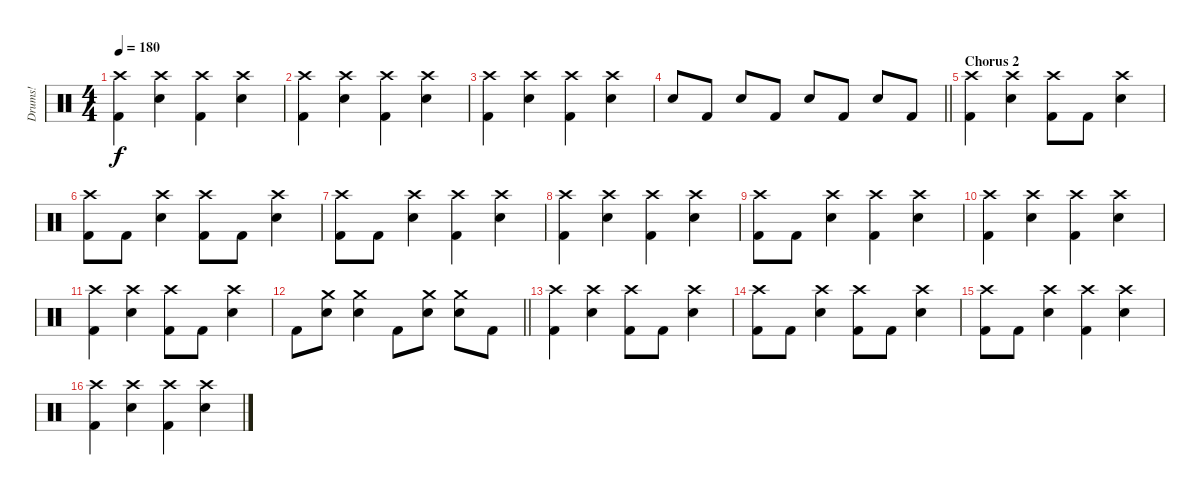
\track ("Drums!" "Drums!") {instrument percussion}
\staff {score}
\articulation defaults
\ts (4 4)
\tempo 180
\clef neutral
\ks c
("Crash high (hit)" "Kick (hit) 2").4{dy f} ("Crash high (hit)" "Electric Snare (hit)").4 ("Crash high (hit)" "Kick (hit) 2").4 ("Crash high (hit)" "Electric Snare (hit)").4 |
("Crash high (hit)" "Kick (hit) 2").4 ("Crash high (hit)" "Electric Snare (hit)").4 ("Crash high (hit)" "Kick (hit) 2").4 ("Crash high (hit)" "Electric Snare (hit)").4 |
("Crash high (hit)" "Kick (hit) 2").4 ("Crash high (hit)" "Electric Snare (hit)").4 ("Crash high (hit)" "Kick (hit) 2").4 ("Crash high (hit)" "Electric Snare (hit)").4 |
\barLineRight lightlight "Electric Snare (hit)".8 "Kick (hit) 2".8 "Electric Snare (hit)".8 "Kick (hit) 2".8 "Electric Snare (hit)".8 "Kick (hit) 2".8 "Electric Snare (hit)".8 "Kick (hit) 2".8
|
\section ("" "Chorus 2")
("Crash high (hit)" "Kick (hit) 2").4 ("Crash high (hit)" "Electric Snare (hit)").4 ("Crash high (hit)" "Kick (hit) 2").8 "Kick (hit) 2".8 ("Crash high (hit)" "Electric Snare (hit)").4 |
("Crash high (hit)" "Kick (hit) 2").8 "Kick (hit) 2".8 ("Crash high (hit)" "Electric Snare (hit)").4 ("Crash high (hit)" "Kick (hit) 2").8 "Kick (hit) 2".8 ("Crash high (hit)" "Electric Snare (hit)").4 |
("Crash high (hit)" "Kick (hit) 2").8 "Kick (hit) 2".8 ("Crash high (hit)" "Electric Snare (hit)").4 ("Crash high (hit)" "Kick (hit) 2").4 ("Crash high (hit)" "Electric Snare (hit)").4 |
("Crash high (hit)" "Kick (hit) 2").4 ("Crash high (hit)" "Electric Snare (hit)").4 ("Crash high (hit)" "Kick (hit) 2").4 ("Crash high (hit)" "Electric Snare (hit)").4 |
("Crash high (hit)" "Kick (hit) 2").8 "Kick (hit) 2".8 ("Crash high (hit)" "Electric Snare (hit)").4 ("Crash high (hit)" "Kick (hit) 2").4 ("Crash high (hit)" "Electric Snare (hit)").4 |
("Crash high (hit)" "Kick (hit) 2").4 ("Crash high (hit)" "Electric Snare (hit)").4 ("Crash high (hit)" "Kick (hit) 2").4 ("Crash high (hit)" "Electric Snare (hit)").4 |
("Crash high (hit)" "Kick (hit) 2").4 ("Crash high (hit)" "Electric Snare (hit)").4 ("Crash high (hit)" "Kick (hit) 2").8 "Kick (hit) 2".8 ("Crash high (hit)" "Electric Snare (hit)").4 |
\barLineRight lightlight "Kick (hit) 2".8
("Crash medium (hit)" "Electric Snare (hit)").8 ("Crash medium (hit)" "Electric Snare (hit)").4 "Kick (hit) 2".8 ("Crash medium (hit)" "Electric Snare (hit)").8 ("Crash medium (hit)" "Electric Snare (hit)").8 "Kick (hit) 2".8 |
("Crash high (hit)" "Kick (hit) 2").4 ("Crash high (hit)" "Electric Snare (hit)").4 ("Crash high (hit)" "Kick (hit) 2").8 "Kick (hit) 2".8 ("Crash high (hit)" "Electric Snare (hit)").4 |
("Crash high (hit)" "Kick (hit) 2").8 "Kick (hit) 2".8 ("Crash high (hit)" "Electric Snare (hit)").4 ("Crash high (hit)" "Kick (hit) 2").8 "Kick (hit) 2".8 ("Crash high (hit)" "Electric Snare (hit)").4 |
("Crash high (hit)" "Kick (hit) 2").8 "Kick (hit) 2".8 ("Crash high (hit)" "Electric Snare (hit)").4 ("Crash high (hit)" "Kick (hit) 2").4 ("Crash high (hit)" "Electric Snare (hit)").4 |
("Crash high (hit)" "Kick (hit) 2").4 ("Crash high (hit)" "Electric Snare (hit)").4 ("Crash high (hit)" "Kick (hit) 2").4 ("Crash high (hit)" "Electric Snare (hit)").4
